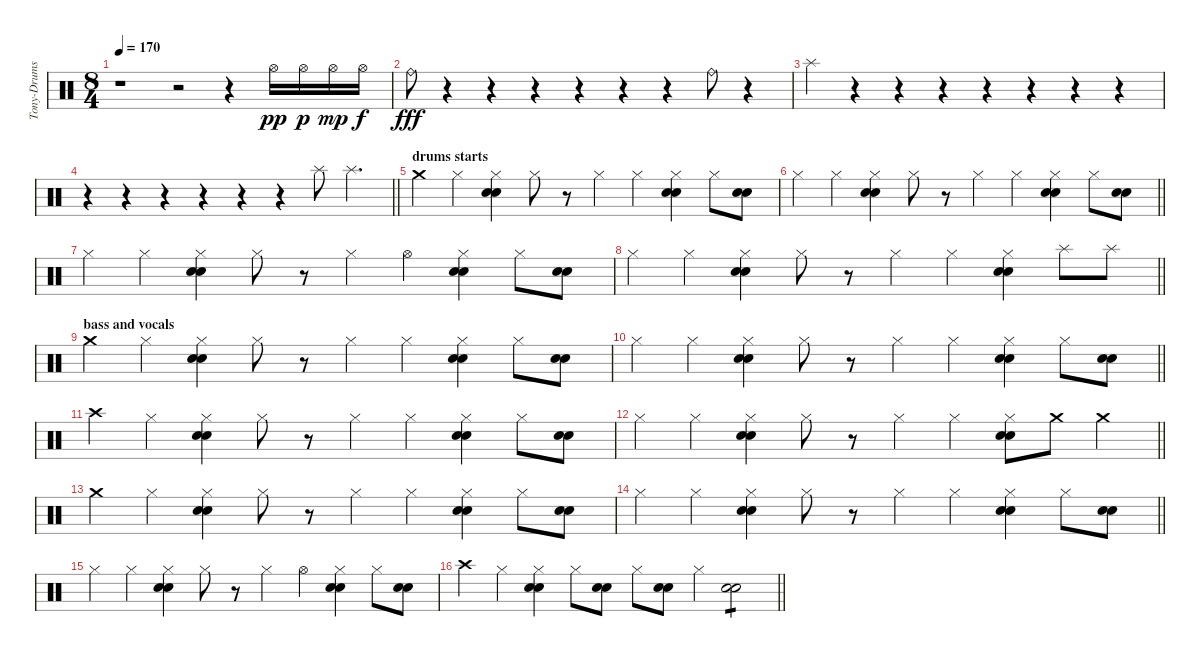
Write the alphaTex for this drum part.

\track ("Tony-Drums" "Tony-Drums") {instrument percussion}
\staff {score}
\articulation defaults
\ts (8 4)
\tempo 170
\clef neutral
\ks c
r.1{dy pp} r.2 r.4 "Hi-Hat (open)".16 "Hi-Hat (open)".16{dy p} "Hi-Hat (open)".16{dy mp} "Hi-Hat (open)".16{dy f} |
"Ride (bell)".8{dy fff} r.4 r.4 r.4 r.4 r.4 r.4 "Ride (bell)".8 r.4 |
"Splash (hit)".4 r.4 r.4 r.4 r.4 r.4 r.4 r.4 |
\barLineRight lightlight
r.4 r.4 r.4 r.4 r.4 r.4 "Splash (hit)".8 "Splash (hit)".4{d} |
\section ("" "drums starts")
"Crash medium (hit)".4 "Hi-Hat (closed)".4 ("Hi-Hat (closed)" "Snare (hit) 2" "Electric Snare (hit)").4 "Hi-Hat (closed)".8 r.8 "Hi-Hat (closed)".4 "Hi-Hat (closed)".4 ("Hi-Hat (closed)" "Snare (hit) 2" "Electric Snare (hit)").4 "Hi-Hat (closed)".8 ("Snare (hit) 2" "Electric Snare (hit)").8 |
\barLineRight lightlight "Hi-Hat (closed)".4 "Hi-Hat (closed)".4
("Hi-Hat (closed)" "Snare (hit) 2" "Electric Snare (hit)").4 "Hi-Hat (closed)".8 r.8 "Hi-Hat (closed)".4 "Hi-Hat (closed)".4 ("Hi-Hat (closed)" "Snare (hit) 2" "Electric Snare (hit)").4 "Hi-Hat (closed)".8 ("Snare (hit) 2" "Electric Snare (hit)").8 |
\section ("" "")
"Hi-Hat (closed)".4 "Hi-Hat (closed)".4 ("Hi-Hat (closed)" "Snare (hit) 2" "Electric Snare (hit)").4 "Hi-Hat (closed)".8 r.8 "Hi-Hat (closed)".4 "Hi-Hat (open)".4 ("Hi-Hat (closed)" "Snare (hit) 2" "Electric Snare (hit)").4 "Hi-Hat (closed)".8 ("Snare (hit) 2" "Electric Snare (hit)").8 |
\barLineRight lightlight "Hi-Hat (closed)".4 "Hi-Hat (closed)".4
("Hi-Hat (closed)" "Snare (hit) 2" "Electric Snare (hit)").4 "Hi-Hat (closed)".8 r.8 "Hi-Hat (closed)".4 "Hi-Hat (closed)".4 ("Hi-Hat (closed)" "Snare (hit) 2" "Electric Snare (hit)").4 "Splash (hit)".8 "Splash (hit)".8 |
\section ("" "bass and vocals")
"Crash medium (hit)".4 "Hi-Hat (closed)".4 ("Hi-Hat (closed)" "Snare (hit) 2" "Electric Snare (hit)").4 "Hi-Hat (closed)".8 r.8 "Hi-Hat (closed)".4 "Hi-Hat (closed)".4 ("Hi-Hat (closed)" "Snare (hit) 2" "Electric Snare (hit)").4 "Hi-Hat (closed)".8 ("Snare (hit) 2" "Electric Snare (hit)").8 |
\barLineRight lightlight "Hi-Hat (closed)".4 "Hi-Hat (closed)".4
("Hi-Hat (closed)" "Snare (hit) 2" "Electric Snare (hit)").4 "Hi-Hat (closed)".8 r.8 "Hi-Hat (closed)".4 "Hi-Hat (closed)".4 ("Hi-Hat (closed)" "Snare (hit) 2" "Electric Snare (hit)").4 "Hi-Hat (closed)".8 ("Snare (hit) 2" "Electric Snare (hit)").8 |
"Crash high (hit)".4 "Hi-Hat (closed)".4 ("Hi-Hat (closed)" "Snare (hit) 2" "Electric Snare (hit)").4 "Hi-Hat (closed)".8 r.8 "Hi-Hat (closed)".4 "Hi-Hat (closed)".4 ("Hi-Hat (closed)" "Snare (hit) 2" "Electric Snare (hit)").4 "Hi-Hat (closed)".8 ("Snare (hit) 2" "Electric Snare (hit)").8 |
\barLineRight lightlight "Hi-Hat (closed)".4 "Hi-Hat (closed)".4
("Hi-Hat (closed)" "Snare (hit) 2" "Electric Snare (hit)").4 "Hi-Hat (closed)".8 r.8 "Hi-Hat (closed)".4 "Hi-Hat (closed)".4 ("Hi-Hat (closed)" "Snare (hit) 2" "Electric Snare (hit)").8 "Crash medium (hit)".8 "Crash medium (hit)".4 |
"Crash medium (hit)".4 "Hi-Hat (closed)".4 ("Hi-Hat (closed)" "Snare (hit) 2" "Electric Snare (hit)").4 "Hi-Hat (closed)".8 r.8 "Hi-Hat (closed)".4 "Hi-Hat (closed)".4 ("Hi-Hat (closed)" "Snare (hit) 2" "Electric Snare (hit)").4 "Hi-Hat (closed)".8 ("Snare (hit) 2" "Electric Snare (hit)").8 |
\barLineRight lightlight "Hi-Hat (closed)".4 "Hi-Hat (closed)".4
("Hi-Hat (closed)" "Snare (hit) 2" "Electric Snare (hit)").4 "Hi-Hat (closed)".8 r.8 "Hi-Hat (closed)".4 "Hi-Hat (closed)".4 ("Hi-Hat (closed)" "Snare (hit) 2" "Electric Snare (hit)").4 "Hi-Hat (closed)".8 ("Snare (hit) 2" "Electric Snare (hit)").8 |
"Hi-Hat (closed)".4 "Hi-Hat (closed)".4 ("Hi-Hat (closed)" "Snare (hit) 2" "Electric Snare (hit)").4 "Hi-Hat (closed)".8 r.8 "Hi-Hat (closed)".4 "Hi-Hat (open)".4 ("Hi-Hat (closed)" "Snare (hit) 2" "Electric Snare (hit)").4 "Hi-Hat (closed)".8 ("Snare (hit) 2" "Electric Snare (hit)").8 |
\barLineRight lightlight "Crash high (hit)".4 "Hi-Hat (closed)".4
("Hi-Hat (closed)" "Snare (hit) 2" "Electric Snare (hit)").4 "Hi-Hat (closed)".8 ("Snare (hit) 2" "Electric Snare (hit)").8 "Hi-Hat (closed)".8 ("Snare (hit) 2" "Electric Snare (hit)").8 "Hi-Hat (closed)".4 ("Snare (hit) 2" "Electric Snare (hit)").2{tp 1}
